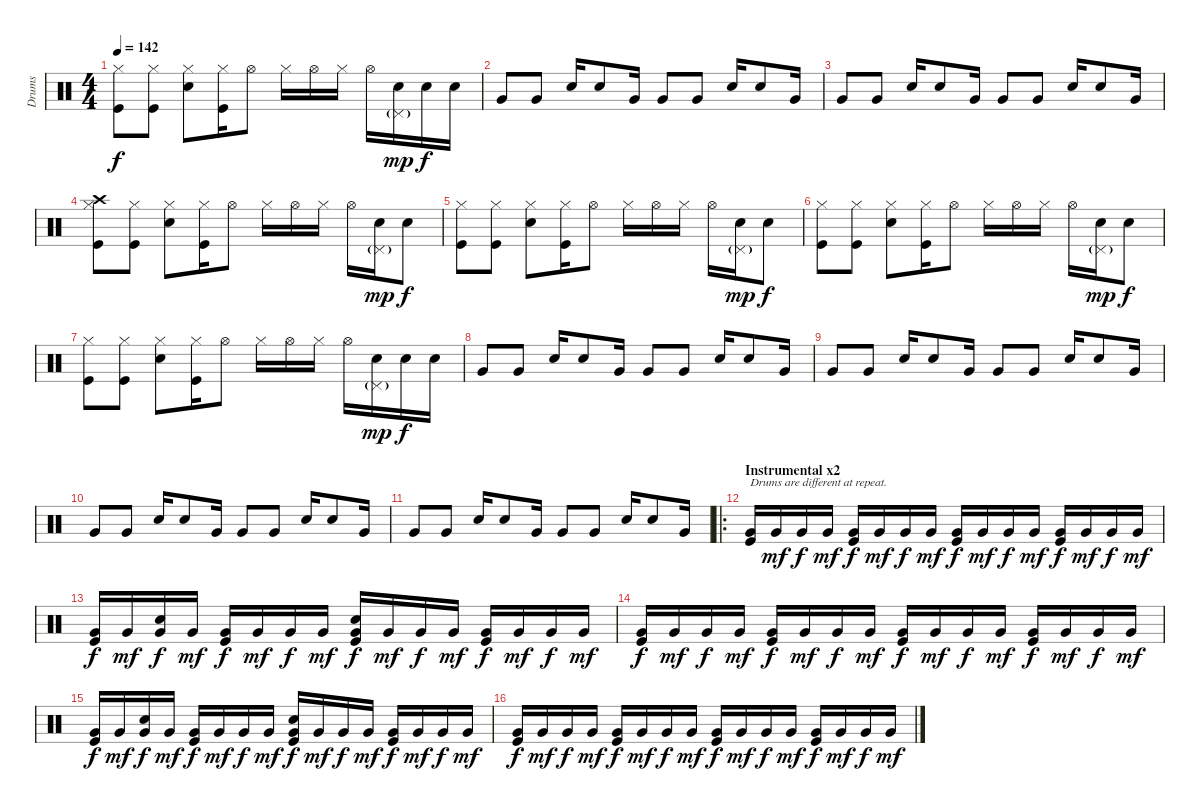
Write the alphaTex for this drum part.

\track ("Drums" "Drums") {instrument percussion}
\staff {score}
\articulation defaults
\ts (4 4)
\tempo 142
\clef neutral
\ks c
("Hi-Hat (closed)" "Kick (hit)").8{dy f} ("Hi-Hat (closed)" "Kick (hit)").8 ("Hi-Hat (closed)" "Snare (hit) 2").8 ("Hi-Hat (closed)" "Kick (hit)").16 "Hi-Hat (open)".8 "Hi-Hat (closed)".16 "Hi-Hat (open)".16 "Hi-Hat (closed)".16 "Hi-Hat (open)".16 ("Pedal Hi-Hat (hit)"{g} "Snare (hit) 2").16{dy mp} "Snare (hit) 2".16{dy f} "Snare (hit) 2".16 |
"Very Low Tom (hit)".8 "Very Low Tom (hit)".8 "Snare (hit) 2".16 "Snare (hit) 2".8 "Very Low Tom (hit)".16 "Very Low Tom (hit)".8 "Very Low Tom (hit)".8 "Snare (hit) 2".16 "Snare (hit) 2".8 "Very Low Tom (hit)".16 |
"Very Low Tom (hit)".8 "Very Low Tom (hit)".8 "Snare (hit) 2".16 "Snare (hit) 2".8 "Very Low Tom (hit)".16 "Very Low Tom (hit)".8 "Very Low Tom (hit)".8 "Snare (hit) 2".16 "Snare (hit) 2".8 "Very Low Tom (hit)".16 |
("Hi-Hat (closed)" "Crash high (hit)" "Kick (hit)").8 ("Hi-Hat (closed)" "Kick (hit)").8 ("Hi-Hat (closed)" "Snare (hit) 2").8 ("Hi-Hat (closed)" "Kick (hit)").16 "Hi-Hat (open)".8 "Hi-Hat (closed)".16 "Hi-Hat (open)".16 "Hi-Hat (closed)".16 "Hi-Hat (open)".16 ("Pedal Hi-Hat (hit)"{g} "Snare (hit) 2").16{dy mp} "Snare (hit) 2".8{dy f} |
("Hi-Hat (closed)" "Kick (hit)").8 ("Hi-Hat (closed)" "Kick (hit)").8 ("Hi-Hat (closed)" "Snare (hit) 2").8 ("Hi-Hat (closed)" "Kick (hit)").16 "Hi-Hat (open)".8 "Hi-Hat (closed)".16 "Hi-Hat (open)".16 "Hi-Hat (closed)".16 "Hi-Hat (open)".16 ("Pedal Hi-Hat (hit)"{g} "Snare (hit) 2").16{dy mp} "Snare (hit) 2".8{dy f} |
("Hi-Hat (closed)" "Kick (hit)").8 ("Hi-Hat (closed)" "Kick (hit)").8 ("Hi-Hat (closed)" "Snare (hit) 2").8 ("Hi-Hat (closed)" "Kick (hit)").16 "Hi-Hat (open)".8 "Hi-Hat (closed)".16 "Hi-Hat (open)".16 "Hi-Hat (closed)".16 "Hi-Hat (open)".16 ("Pedal Hi-Hat (hit)"{g} "Snare (hit) 2").16{dy mp} "Snare (hit) 2".8{dy f} |
("Hi-Hat (closed)" "Kick (hit)").8 ("Hi-Hat (closed)" "Kick (hit)").8 ("Hi-Hat (closed)" "Snare (hit) 2").8 ("Hi-Hat (closed)" "Kick (hit)").16 "Hi-Hat (open)".8 "Hi-Hat (closed)".16 "Hi-Hat (open)".16 "Hi-Hat (closed)".16 "Hi-Hat (open)".16 ("Pedal Hi-Hat (hit)"{g} "Snare (hit) 2").16{dy mp} "Snare (hit) 2".16{dy f} "Snare (hit) 2".16 |
"Very Low Tom (hit)".8 "Very Low Tom (hit)".8 "Snare (hit) 2".16 "Snare (hit) 2".8 "Very Low Tom (hit)".16 "Very Low Tom (hit)".8 "Very Low Tom (hit)".8 "Snare (hit) 2".16 "Snare (hit) 2".8 "Very Low Tom (hit)".16 |
"Very Low Tom (hit)".8 "Very Low Tom (hit)".8 "Snare (hit) 2".16 "Snare (hit) 2".8 "Very Low Tom (hit)".16 "Very Low Tom (hit)".8 "Very Low Tom (hit)".8 "Snare (hit) 2".16 "Snare (hit) 2".8 "Very Low Tom (hit)".16 |
"Very Low Tom (hit)".8 "Very Low Tom (hit)".8 "Snare (hit) 2".16 "Snare (hit) 2".8 "Very Low Tom (hit)".16 "Very Low Tom (hit)".8 "Very Low Tom (hit)".8 "Snare (hit) 2".16 "Snare (hit) 2".8 "Very Low Tom (hit)".16 |
"Very Low Tom (hit)".8 "Very Low Tom (hit)".8 "Snare (hit) 2".16 "Snare (hit) 2".8 "Very Low Tom (hit)".16 "Very Low Tom (hit)".8 "Very Low Tom (hit)".8 "Snare (hit) 2".16 "Snare (hit) 2".8 "Very Low Tom (hit)".16 |
\ro
\section ("" "Instrumental x2")
("Very Low Tom (hit)" "Kick (hit)").16{txt "Drums are different at repeat."} "Very Low Tom (hit)".16{dy mf} "Very Low Tom (hit)".16{dy f} "Very Low Tom (hit)".16{dy mf} ("Very Low Tom (hit)" "Kick (hit)").16{dy f} "Very Low Tom (hit)".16{dy mf} "Very Low Tom (hit)".16{dy f} "Very Low Tom (hit)".16{dy mf} ("Very Low Tom (hit)" "Kick (hit)").16{dy f} "Very Low Tom (hit)".16{dy mf} "Very Low Tom (hit)".16{dy f} "Very Low Tom (hit)".16{dy mf} ("Very Low Tom (hit)" "Kick (hit)").16{dy f} "Very Low Tom (hit)".16{dy mf} "Very Low Tom (hit)".16{dy f} "Very Low Tom (hit)".16{dy mf} |
("Very Low Tom (hit)" "Kick (hit)").16{dy f} "Very Low Tom (hit)".16{dy mf} ("Very Low Tom (hit)" "Snare (hit) 2").16{dy f} "Very Low Tom (hit)".16{dy mf} ("Very Low Tom (hit)" "Kick (hit)").16{dy f} "Very Low Tom (hit)".16{dy mf} "Very Low Tom (hit)".16{dy f} "Very Low Tom (hit)".16{dy mf} ("Very Low Tom (hit)" "Snare (hit) 2" "Kick (hit)").16{dy f} "Very Low Tom (hit)".16{dy mf} "Very Low Tom (hit)".16{dy f} "Very Low Tom (hit)".16{dy mf} ("Very Low Tom (hit)" "Kick (hit)").16{dy f} "Very Low Tom (hit)".16{dy mf} "Very Low Tom (hit)".16{dy f} "Very Low Tom (hit)".16{dy mf} |
("Very Low Tom (hit)" "Kick (hit)").16{dy f} "Very Low Tom (hit)".16{dy mf} "Very Low Tom (hit)".16{dy f} "Very Low Tom (hit)".16{dy mf} ("Very Low Tom (hit)" "Kick (hit)").16{dy f} "Very Low Tom (hit)".16{dy mf} "Very Low Tom (hit)".16{dy f} "Very Low Tom (hit)".16{dy mf} ("Very Low Tom (hit)" "Kick (hit)").16{dy f} "Very Low Tom (hit)".16{dy mf} "Very Low Tom (hit)".16{dy f} "Very Low Tom (hit)".16{dy mf} ("Very Low Tom (hit)" "Kick (hit)").16{dy f} "Very Low Tom (hit)".16{dy mf} "Very Low Tom (hit)".16{dy f} "Very Low Tom (hit)".16{dy mf} |
("Very Low Tom (hit)" "Kick (hit)").16{dy f} "Very Low Tom (hit)".16{dy mf} ("Very Low Tom (hit)" "Snare (hit) 2").16{dy f} "Very Low Tom (hit)".16{dy mf} ("Very Low Tom (hit)" "Kick (hit)").16{dy f} "Very Low Tom (hit)".16{dy mf} "Very Low Tom (hit)".16{dy f} "Very Low Tom (hit)".16{dy mf} ("Very Low Tom (hit)" "Snare (hit) 2" "Kick (hit)").16{dy f} "Very Low Tom (hit)".16{dy mf} "Very Low Tom (hit)".16{dy f} "Very Low Tom (hit)".16{dy mf} ("Very Low Tom (hit)" "Kick (hit)").16{dy f} "Very Low Tom (hit)".16{dy mf} "Very Low Tom (hit)".16{dy f} "Very Low Tom (hit)".16{dy mf} |
("Very Low Tom (hit)" "Kick (hit)").16{dy f} "Very Low Tom (hit)".16{dy mf} "Very Low Tom (hit)".16{dy f} "Very Low Tom (hit)".16{dy mf} ("Very Low Tom (hit)" "Kick (hit)").16{dy f} "Very Low Tom (hit)".16{dy mf} "Very Low Tom (hit)".16{dy f} "Very Low Tom (hit)".16{dy mf} ("Very Low Tom (hit)" "Kick (hit)").16{dy f} "Very Low Tom (hit)".16{dy mf} "Very Low Tom (hit)".16{dy f} "Very Low Tom (hit)".16{dy mf} ("Very Low Tom (hit)" "Kick (hit)").16{dy f} "Very Low Tom (hit)".16{dy mf} "Very Low Tom (hit)".16{dy f} "Very Low Tom (hit)".16{dy mf}
